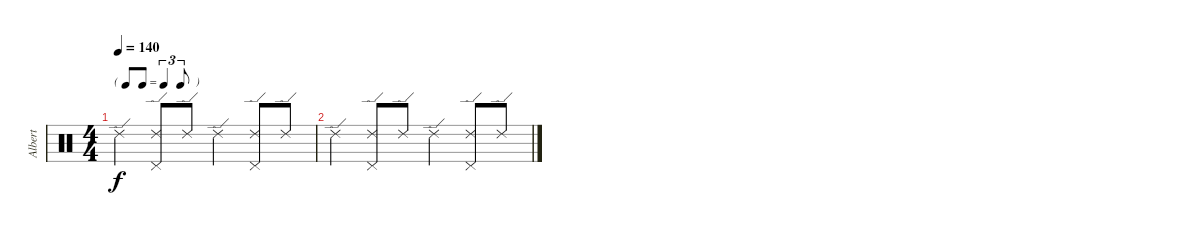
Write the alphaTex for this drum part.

\track ("Albert" "Albert") {instrument percussion}
\staff {score}
\articulation defaults
\ts (4 4)
\tf triplet8th
\tempo 140
\clef neutral
\ks c "Ride (edge) 2".4{dy f}
("Ride (edge) 2" "Pedal Hi-Hat (hit)").8 "Ride (edge) 2".8 "Ride (edge) 2".4 ("Ride (edge) 2" "Pedal Hi-Hat (hit)").8 "Ride (edge) 2".8 |
"Ride (edge) 2".4 ("Ride (edge) 2" "Pedal Hi-Hat (hit)").8 "Ride (edge) 2".8 "Ride (edge) 2".4 ("Ride (edge) 2" "Pedal Hi-Hat (hit)").8 "Ride (edge) 2".8
